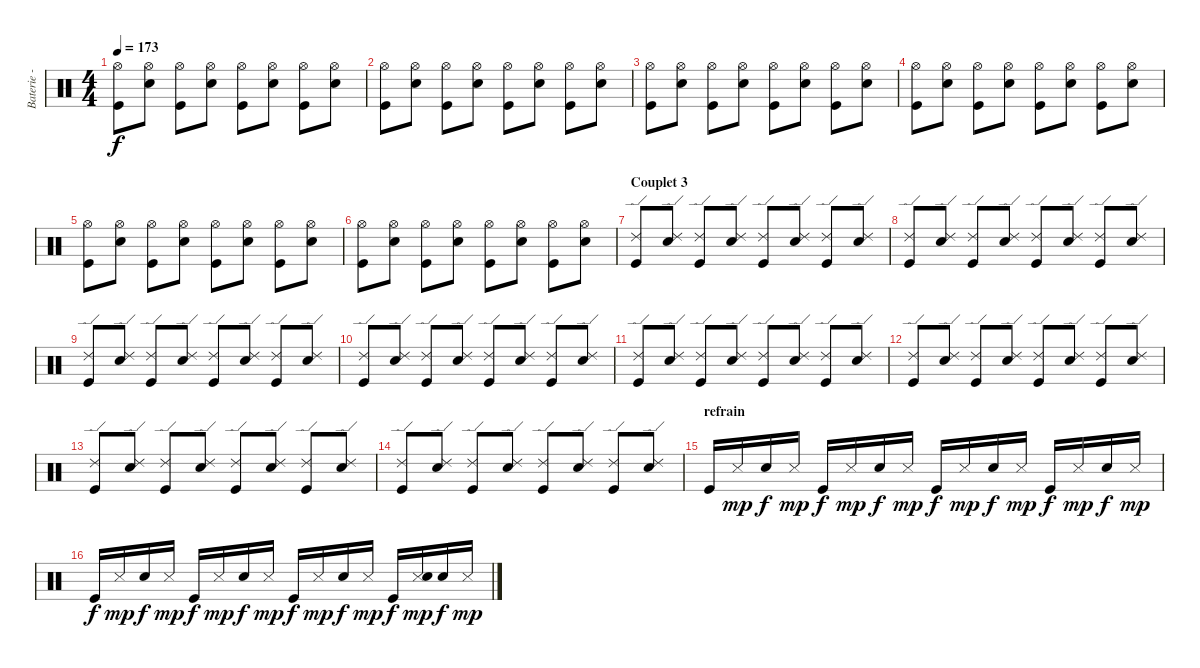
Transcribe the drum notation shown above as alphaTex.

\track ("Baterie - Guillaume" "Baterie - ") {instrument percussion}
\staff {score}
\articulation defaults
\ts (4 4)
\tempo 173
\clef neutral
\ks c
("Hi-Hat (open)" "Kick (hit)").8{dy f} ("Hi-Hat (open)" "Snare (hit) 2").8 ("Hi-Hat (open)" "Kick (hit)").8 ("Hi-Hat (open)" "Snare (hit) 2").8 ("Hi-Hat (open)" "Kick (hit)").8 ("Hi-Hat (open)" "Snare (hit) 2").8 ("Hi-Hat (open)" "Kick (hit)").8 ("Hi-Hat (open)" "Snare (hit) 2").8 |
("Hi-Hat (open)" "Kick (hit)").8 ("Hi-Hat (open)" "Snare (hit) 2").8 ("Hi-Hat (open)" "Kick (hit)").8 ("Hi-Hat (open)" "Snare (hit) 2").8 ("Hi-Hat (open)" "Kick (hit)").8 ("Hi-Hat (open)" "Snare (hit) 2").8 ("Hi-Hat (open)" "Kick (hit)").8 ("Hi-Hat (open)" "Snare (hit) 2").8 |
("Hi-Hat (open)" "Kick (hit)").8 ("Hi-Hat (open)" "Snare (hit) 2").8 ("Hi-Hat (open)" "Kick (hit)").8 ("Hi-Hat (open)" "Snare (hit) 2").8 ("Hi-Hat (open)" "Kick (hit)").8 ("Hi-Hat (open)" "Snare (hit) 2").8 ("Hi-Hat (open)" "Kick (hit)").8 ("Hi-Hat (open)" "Snare (hit) 2").8 |
("Hi-Hat (open)" "Kick (hit)").8 ("Hi-Hat (open)" "Snare (hit) 2").8 ("Hi-Hat (open)" "Kick (hit)").8 ("Hi-Hat (open)" "Snare (hit) 2").8 ("Hi-Hat (open)" "Kick (hit)").8 ("Hi-Hat (open)" "Snare (hit) 2").8 ("Hi-Hat (open)" "Kick (hit)").8 ("Hi-Hat (open)" "Snare (hit) 2").8 |
("Hi-Hat (open)" "Kick (hit)").8 ("Hi-Hat (open)" "Snare (hit) 2").8 ("Hi-Hat (open)" "Kick (hit)").8 ("Hi-Hat (open)" "Snare (hit) 2").8 ("Hi-Hat (open)" "Kick (hit)").8 ("Hi-Hat (open)" "Snare (hit) 2").8 ("Hi-Hat (open)" "Kick (hit)").8 ("Hi-Hat (open)" "Snare (hit) 2").8 |
("Hi-Hat (open)" "Kick (hit)").8 ("Hi-Hat (open)" "Snare (hit) 2").8 ("Hi-Hat (open)" "Kick (hit)").8 ("Hi-Hat (open)" "Snare (hit) 2").8 ("Hi-Hat (open)" "Kick (hit)").8 ("Hi-Hat (open)" "Snare (hit) 2").8 ("Hi-Hat (open)" "Kick (hit)").8 ("Hi-Hat (open)" "Snare (hit) 2").8 |
\section ("" "Couplet 3")
("Ride (edge) 2" "Kick (hit)").8 ("Ride (edge) 2" "Snare (hit) 2").8 ("Ride (edge) 2" "Kick (hit)").8 ("Ride (edge) 2" "Snare (hit) 2").8 ("Ride (edge) 2" "Kick (hit)").8 ("Ride (edge) 2" "Snare (hit) 2").8 ("Ride (edge) 2" "Kick (hit)").8 ("Ride (edge) 2" "Snare (hit) 2").8 |
("Ride (edge) 2" "Kick (hit)").8 ("Ride (edge) 2" "Snare (hit) 2").8 ("Ride (edge) 2" "Kick (hit)").8 ("Ride (edge) 2" "Snare (hit) 2").8 ("Ride (edge) 2" "Kick (hit)").8 ("Ride (edge) 2" "Snare (hit) 2").8 ("Ride (edge) 2" "Kick (hit)").8 ("Ride (edge) 2" "Snare (hit) 2").8 |
("Ride (edge) 2" "Kick (hit)").8 ("Ride (edge) 2" "Snare (hit) 2").8 ("Ride (edge) 2" "Kick (hit)").8 ("Ride (edge) 2" "Snare (hit) 2").8 ("Ride (edge) 2" "Kick (hit)").8 ("Ride (edge) 2" "Snare (hit) 2").8 ("Ride (edge) 2" "Kick (hit)").8 ("Ride (edge) 2" "Snare (hit) 2").8 |
("Ride (edge) 2" "Kick (hit)").8 ("Ride (edge) 2" "Snare (hit) 2").8 ("Ride (edge) 2" "Kick (hit)").8 ("Ride (edge) 2" "Snare (hit) 2").8 ("Ride (edge) 2" "Kick (hit)").8 ("Ride (edge) 2" "Snare (hit) 2").8 ("Ride (edge) 2" "Kick (hit)").8 ("Ride (edge) 2" "Snare (hit) 2").8 |
("Ride (edge) 2" "Kick (hit)").8 ("Ride (edge) 2" "Snare (hit) 2").8 ("Ride (edge) 2" "Kick (hit)").8 ("Ride (edge) 2" "Snare (hit) 2").8 ("Ride (edge) 2" "Kick (hit)").8 ("Ride (edge) 2" "Snare (hit) 2").8 ("Ride (edge) 2" "Kick (hit)").8 ("Ride (edge) 2" "Snare (hit) 2").8 |
("Ride (edge) 2" "Kick (hit)").8 ("Ride (edge) 2" "Snare (hit) 2").8 ("Ride (edge) 2" "Kick (hit)").8 ("Ride (edge) 2" "Snare (hit) 2").8 ("Ride (edge) 2" "Kick (hit)").8 ("Ride (edge) 2" "Snare (hit) 2").8 ("Ride (edge) 2" "Kick (hit)").8 ("Ride (edge) 2" "Snare (hit) 2").8 |
("Ride (edge) 2" "Kick (hit)").8 ("Ride (edge) 2" "Snare (hit) 2").8 ("Ride (edge) 2" "Kick (hit)").8 ("Ride (edge) 2" "Snare (hit) 2").8 ("Ride (edge) 2" "Kick (hit)").8 ("Ride (edge) 2" "Snare (hit) 2").8 ("Ride (edge) 2" "Kick (hit)").8 ("Ride (edge) 2" "Snare (hit) 2").8 |
("Ride (edge) 2" "Kick (hit)").8 ("Ride (edge) 2" "Snare (hit) 2").8 ("Ride (edge) 2" "Kick (hit)").8 ("Ride (edge) 2" "Snare (hit) 2").8 ("Ride (edge) 2" "Kick (hit)").8 ("Ride (edge) 2" "Snare (hit) 2").8 ("Ride (edge) 2" "Kick (hit)").8 ("Ride (edge) 2" "Snare (hit) 2").8 |
\section ("" "refrain")
"Kick (hit)".16 "Snare (side stick) 3".16{dy mp} "Snare (hit) 2".16{dy f} "Snare (side stick) 3".16{dy mp} "Kick (hit)".16{dy f} "Snare (side stick) 3".16{dy mp} "Snare (hit) 2".16{dy f} "Snare (side stick) 3".16{dy mp} "Kick (hit)".16{dy f} "Snare (side stick) 3".16{dy mp} "Snare (hit) 2".16{dy f} "Snare (side stick) 3".16{dy mp} "Kick (hit)".16{dy f} "Snare (side stick) 3".16{dy mp} "Snare (hit) 2".16{dy f} "Snare (side stick) 3".16{dy mp} |
"Kick (hit)".16{dy f} "Snare (side stick) 3".16{dy mp} "Snare (hit) 2".16{dy f} "Snare (side stick) 3".16{dy mp} "Kick (hit)".16{dy f} "Snare (side stick) 3".16{dy mp} "Snare (hit) 2".16{dy f} "Snare (side stick) 3".16{dy mp} "Kick (hit)".16{dy f} "Snare (side stick) 3".16{dy mp} "Snare (hit) 2".16{dy f} "Snare (side stick) 3".16{dy mp} "Kick (hit)".16{dy f} ("Snare (side stick) 3" "Snare (hit) 2").16{dy mp} "Snare (hit) 2".16{dy f} "Snare (side stick) 3".16{dy mp}
